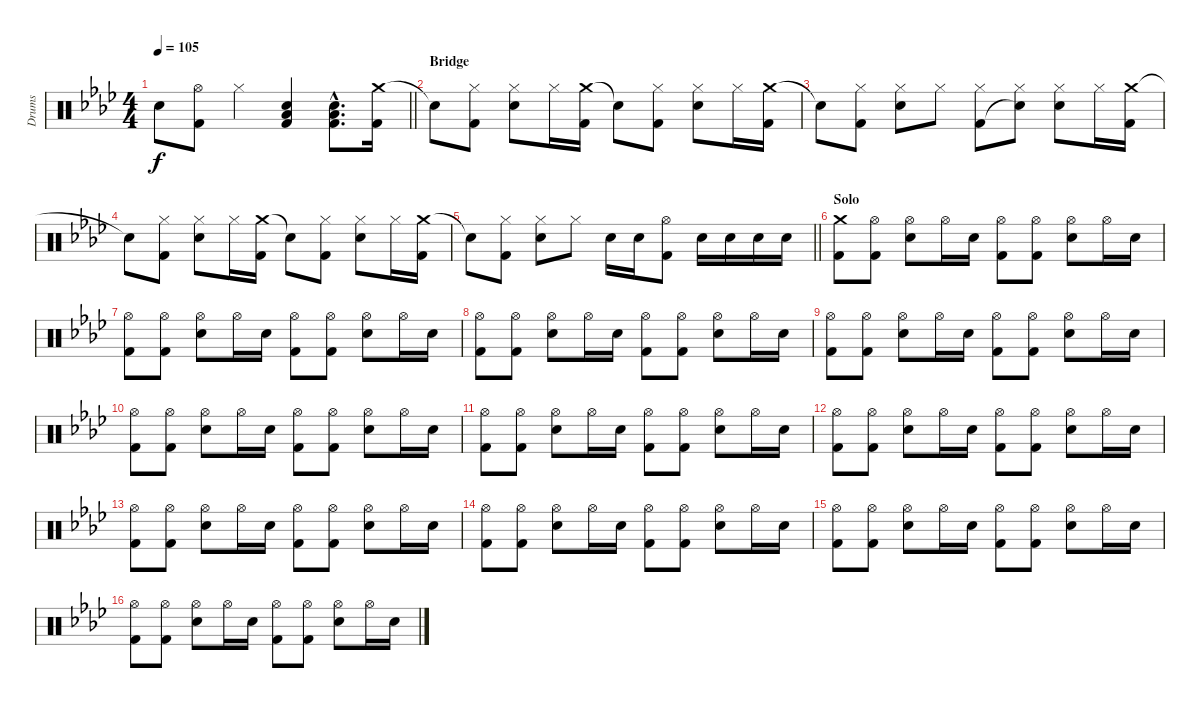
\track ("Drums" "Drums") {instrument percussion}
\staff {score}
\articulation defaults
\ts (4 4)
\tempo 105
\clef neutral
\barLineRight lightlight
\ks fminor "Snare (hit)"{t}.8{dy f}
("Hi-Hat (open)" "Kick (hit) 2").8 "Hi-Hat (closed)".4 ("Electric Snare (hit)" "Low Floor Tom (hit)" "Kick (hit) 2").4 ("Electric Snare (hit)"{hac} "Low Floor Tom (hit)"{hac} "Kick (hit) 2"{hac}).8{d} ("Crash medium (hit)" "Kick (hit) 2").16 |
\section ("" "Bridge")
"Snare (hit)"{t}.8 ("Hi-Hat (closed)" "Kick (hit) 2").8 ("Hi-Hat (closed)" "Electric Snare (hit)").8 "Hi-Hat (closed)".16 ("Crash medium (hit)" "Kick (hit) 2").16 "Snare (hit)"{t}.8 ("Hi-Hat (closed)" "Kick (hit) 2").8 ("Hi-Hat (closed)" "Electric Snare (hit)").8 "Hi-Hat (closed)".16 ("Crash medium (hit)" "Kick (hit) 2").16 |
"Snare (hit)"{t}.8 ("Hi-Hat (closed)" "Kick (hit) 2").8 ("Hi-Hat (closed)" "Electric Snare (hit)").8 "Hi-Hat (closed)".8 ("Hi-Hat (closed)" "Kick (hit) 2").8 ("Hi-Hat (closed)" "Snare (hit)"{t}).8 ("Hi-Hat (closed)" "Electric Snare (hit)").8 "Hi-Hat (closed)".16 ("Crash medium (hit)" "Kick (hit) 2").16 |
"Snare (hit)"{t}.8 ("Hi-Hat (closed)" "Kick (hit) 2").8 ("Hi-Hat (closed)" "Electric Snare (hit)").8 "Hi-Hat (closed)".16 ("Crash medium (hit)" "Kick (hit) 2").16 "Snare (hit)"{t}.8 ("Hi-Hat (closed)" "Kick (hit) 2").8 ("Hi-Hat (closed)" "Electric Snare (hit)").8 "Hi-Hat (closed)".16 ("Crash medium (hit)" "Kick (hit) 2").16 |
\barLineRight lightlight "Snare (hit)"{t}.8
("Hi-Hat (closed)" "Kick (hit) 2").8 ("Hi-Hat (closed)" "Electric Snare (hit)").8 "Hi-Hat (closed)".8 "Electric Snare (hit)".16 "Electric Snare (hit)".16 ("Hi-Hat (open)" "Kick (hit) 2").8 "Electric Snare (hit)".16 "Electric Snare (hit)".16 "Electric Snare (hit)".16 "Electric Snare (hit)".16 |
\section ("" "Solo")
("Crash medium (hit)" "Kick (hit) 2").8 ("Hi-Hat (open)" "Kick (hit) 2").8 ("Hi-Hat (open)" "Electric Snare (hit)").8 "Hi-Hat (open)".16 "Electric Snare (hit)".16 ("Hi-Hat (open)" "Kick (hit) 2").8 ("Hi-Hat (open)" "Kick (hit) 2").8 ("Hi-Hat (open)" "Electric Snare (hit)").8 "Hi-Hat (open)".16 "Electric Snare (hit)".16 |
("Hi-Hat (open)" "Kick (hit) 2").8 ("Hi-Hat (open)" "Kick (hit) 2").8 ("Hi-Hat (open)" "Electric Snare (hit)").8 "Hi-Hat (open)".16 "Electric Snare (hit)".16 ("Hi-Hat (open)" "Kick (hit) 2").8 ("Hi-Hat (open)" "Kick (hit) 2").8 ("Hi-Hat (open)" "Electric Snare (hit)").8 "Hi-Hat (open)".16 "Electric Snare (hit)".16 |
("Hi-Hat (open)" "Kick (hit) 2").8 ("Hi-Hat (open)" "Kick (hit) 2").8 ("Hi-Hat (open)" "Electric Snare (hit)").8 "Hi-Hat (open)".16 "Electric Snare (hit)".16 ("Hi-Hat (open)" "Kick (hit) 2").8 ("Hi-Hat (open)" "Kick (hit) 2").8 ("Hi-Hat (open)" "Electric Snare (hit)").8 "Hi-Hat (open)".16 "Electric Snare (hit)".16 |
("Hi-Hat (open)" "Kick (hit) 2").8 ("Hi-Hat (open)" "Kick (hit) 2").8 ("Hi-Hat (open)" "Electric Snare (hit)").8 "Hi-Hat (open)".16 "Electric Snare (hit)".16 ("Hi-Hat (open)" "Kick (hit) 2").8 ("Hi-Hat (open)" "Kick (hit) 2").8 ("Hi-Hat (open)" "Electric Snare (hit)").8 "Hi-Hat (open)".16 "Electric Snare (hit)".16 |
("Hi-Hat (open)" "Kick (hit) 2").8 ("Hi-Hat (open)" "Kick (hit) 2").8 ("Hi-Hat (open)" "Electric Snare (hit)").8 "Hi-Hat (open)".16 "Electric Snare (hit)".16 ("Hi-Hat (open)" "Kick (hit) 2").8 ("Hi-Hat (open)" "Kick (hit) 2").8 ("Hi-Hat (open)" "Electric Snare (hit)").8 "Hi-Hat (open)".16 "Electric Snare (hit)".16 |
("Hi-Hat (open)" "Kick (hit) 2").8 ("Hi-Hat (open)" "Kick (hit) 2").8 ("Hi-Hat (open)" "Electric Snare (hit)").8 "Hi-Hat (open)".16 "Electric Snare (hit)".16 ("Hi-Hat (open)" "Kick (hit) 2").8 ("Hi-Hat (open)" "Kick (hit) 2").8 ("Hi-Hat (open)" "Electric Snare (hit)").8 "Hi-Hat (open)".16 "Electric Snare (hit)".16 |
("Hi-Hat (open)" "Kick (hit) 2").8 ("Hi-Hat (open)" "Kick (hit) 2").8 ("Hi-Hat (open)" "Electric Snare (hit)").8 "Hi-Hat (open)".16 "Electric Snare (hit)".16 ("Hi-Hat (open)" "Kick (hit) 2").8 ("Hi-Hat (open)" "Kick (hit) 2").8 ("Hi-Hat (open)" "Electric Snare (hit)").8 "Hi-Hat (open)".16 "Electric Snare (hit)".16 |
("Hi-Hat (open)" "Kick (hit) 2").8 ("Hi-Hat (open)" "Kick (hit) 2").8 ("Hi-Hat (open)" "Electric Snare (hit)").8 "Hi-Hat (open)".16 "Electric Snare (hit)".16 ("Hi-Hat (open)" "Kick (hit) 2").8 ("Hi-Hat (open)" "Kick (hit) 2").8 ("Hi-Hat (open)" "Electric Snare (hit)").8 "Hi-Hat (open)".16 "Electric Snare (hit)".16 |
("Hi-Hat (open)" "Kick (hit) 2").8 ("Hi-Hat (open)" "Kick (hit) 2").8 ("Hi-Hat (open)" "Electric Snare (hit)").8 "Hi-Hat (open)".16 "Electric Snare (hit)".16 ("Hi-Hat (open)" "Kick (hit) 2").8 ("Hi-Hat (open)" "Kick (hit) 2").8 ("Hi-Hat (open)" "Electric Snare (hit)").8 "Hi-Hat (open)".16 "Electric Snare (hit)".16 |
("Hi-Hat (open)" "Kick (hit) 2").8 ("Hi-Hat (open)" "Kick (hit) 2").8 ("Hi-Hat (open)" "Electric Snare (hit)").8 "Hi-Hat (open)".16 "Electric Snare (hit)".16 ("Hi-Hat (open)" "Kick (hit) 2").8 ("Hi-Hat (open)" "Kick (hit) 2").8 ("Hi-Hat (open)" "Electric Snare (hit)").8 "Hi-Hat (open)".16 "Electric Snare (hit)".16 |
("Hi-Hat (open)" "Kick (hit) 2").8 ("Hi-Hat (open)" "Kick (hit) 2").8 ("Hi-Hat (open)" "Electric Snare (hit)").8 "Hi-Hat (open)".16 "Electric Snare (hit)".16 ("Hi-Hat (open)" "Kick (hit) 2").8 ("Hi-Hat (open)" "Kick (hit) 2").8 ("Hi-Hat (open)" "Electric Snare (hit)").8 "Hi-Hat (open)".16 "Electric Snare (hit)".16
